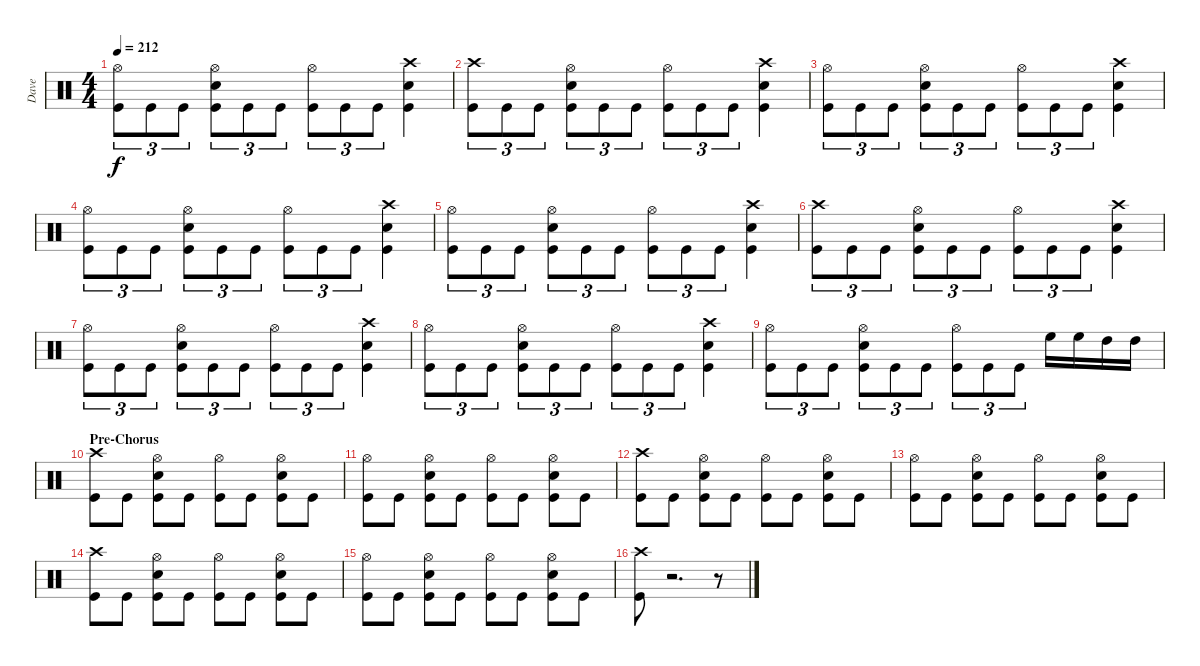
\track ("Dave" "Dave") {instrument percussion}
\staff {score}
\articulation defaults
\ts (4 4)
\tempo 212
\clef neutral
\ks c
("Hi-Hat (open)" "Kick (hit)").8{tu (3 2) dy f} "Kick (hit)".8{tu (3 2)} "Kick (hit)".8{tu (3 2)} ("Hi-Hat (open)" "Snare (hit) 2" "Kick (hit)").8{tu (3 2)} "Kick (hit)".8{tu (3 2)} "Kick (hit)".8{tu (3 2)} ("Hi-Hat (open)" "Kick (hit)").8{tu (3 2)} "Kick (hit)".8{tu (3 2)} "Kick (hit)".8{tu (3 2)} ("Crash high (hit)" "Snare (hit) 2" "Kick (hit)").4 |
("Crash high (hit)" "Kick (hit)").8{tu (3 2)} "Kick (hit)".8{tu (3 2)} "Kick (hit)".8{tu (3 2)} ("Hi-Hat (open)" "Snare (hit) 2" "Kick (hit)").8{tu (3 2)} "Kick (hit)".8{tu (3 2)} "Kick (hit)".8{tu (3 2)} ("Hi-Hat (open)" "Kick (hit)").8{tu (3 2)} "Kick (hit)".8{tu (3 2)} "Kick (hit)".8{tu (3 2)} ("Crash high (hit)" "Snare (hit) 2" "Kick (hit)").4 |
("Hi-Hat (open)" "Kick (hit)").8{tu (3 2)} "Kick (hit)".8{tu (3 2)} "Kick (hit)".8{tu (3 2)} ("Hi-Hat (open)" "Snare (hit) 2" "Kick (hit)").8{tu (3 2)} "Kick (hit)".8{tu (3 2)} "Kick (hit)".8{tu (3 2)} ("Hi-Hat (open)" "Kick (hit)").8{tu (3 2)} "Kick (hit)".8{tu (3 2)} "Kick (hit)".8{tu (3 2)} ("Crash high (hit)" "Snare (hit) 2" "Kick (hit)").4 |
("Hi-Hat (open)" "Kick (hit)").8{tu (3 2)} "Kick (hit)".8{tu (3 2)} "Kick (hit)".8{tu (3 2)} ("Hi-Hat (open)" "Snare (hit) 2" "Kick (hit)").8{tu (3 2)} "Kick (hit)".8{tu (3 2)} "Kick (hit)".8{tu (3 2)} ("Hi-Hat (open)" "Kick (hit)").8{tu (3 2)} "Kick (hit)".8{tu (3 2)} "Kick (hit)".8{tu (3 2)} ("Crash high (hit)" "Snare (hit) 2" "Kick (hit)").4 |
("Hi-Hat (open)" "Kick (hit)").8{tu (3 2)} "Kick (hit)".8{tu (3 2)} "Kick (hit)".8{tu (3 2)} ("Hi-Hat (open)" "Snare (hit) 2" "Kick (hit)").8{tu (3 2)} "Kick (hit)".8{tu (3 2)} "Kick (hit)".8{tu (3 2)} ("Hi-Hat (open)" "Kick (hit)").8{tu (3 2)} "Kick (hit)".8{tu (3 2)} "Kick (hit)".8{tu (3 2)} ("Crash high (hit)" "Snare (hit) 2" "Kick (hit)").4 |
("Crash high (hit)" "Kick (hit)").8{tu (3 2)} "Kick (hit)".8{tu (3 2)} "Kick (hit)".8{tu (3 2)} ("Hi-Hat (open)" "Snare (hit) 2" "Kick (hit)").8{tu (3 2)} "Kick (hit)".8{tu (3 2)} "Kick (hit)".8{tu (3 2)} ("Hi-Hat (open)" "Kick (hit)").8{tu (3 2)} "Kick (hit)".8{tu (3 2)} "Kick (hit)".8{tu (3 2)} ("Crash high (hit)" "Snare (hit) 2" "Kick (hit)").4 |
("Hi-Hat (open)" "Kick (hit)").8{tu (3 2)} "Kick (hit)".8{tu (3 2)} "Kick (hit)".8{tu (3 2)} ("Hi-Hat (open)" "Snare (hit) 2" "Kick (hit)").8{tu (3 2)} "Kick (hit)".8{tu (3 2)} "Kick (hit)".8{tu (3 2)} ("Hi-Hat (open)" "Kick (hit)").8{tu (3 2)} "Kick (hit)".8{tu (3 2)} "Kick (hit)".8{tu (3 2)} ("Crash high (hit)" "Snare (hit) 2" "Kick (hit)").4 |
("Hi-Hat (open)" "Kick (hit)").8{tu (3 2)} "Kick (hit)".8{tu (3 2)} "Kick (hit)".8{tu (3 2)} ("Hi-Hat (open)" "Snare (hit) 2" "Kick (hit)").8{tu (3 2)} "Kick (hit)".8{tu (3 2)} "Kick (hit)".8{tu (3 2)} ("Hi-Hat (open)" "Kick (hit)").8{tu (3 2)} "Kick (hit)".8{tu (3 2)} "Kick (hit)".8{tu (3 2)} ("Crash high (hit)" "Snare (hit) 2" "Kick (hit)").4 |
("Hi-Hat (open)" "Kick (hit)").8{tu (3 2)} "Kick (hit)".8{tu (3 2)} "Kick (hit)".8{tu (3 2)} ("Hi-Hat (open)" "Snare (hit) 2" "Kick (hit)").8{tu (3 2)} "Kick (hit)".8{tu (3 2)} "Kick (hit)".8{tu (3 2)} ("Hi-Hat (open)" "Kick (hit)").8{tu (3 2)} "Kick (hit)".8{tu (3 2)} "Kick (hit)".8{tu (3 2)} "High Floor Tom (hit)".16 "High Floor Tom (hit)".16 "High Tom (hit)".16 "High Tom (hit)".16 |
\section ("" "Pre-Chorus")
("Crash high (hit)" "Kick (hit)").8 "Kick (hit)".8 ("Hi-Hat (open)" "Snare (hit) 2" "Kick (hit)").8 "Kick (hit)".8 ("Hi-Hat (open)" "Kick (hit)").8 "Kick (hit)".8 ("Hi-Hat (open)" "Snare (hit) 2" "Kick (hit)").8 "Kick (hit)".8 |
("Hi-Hat (open)" "Kick (hit)").8 "Kick (hit)".8 ("Hi-Hat (open)" "Snare (hit) 2" "Kick (hit)").8 "Kick (hit)".8 ("Hi-Hat (open)" "Kick (hit)").8 "Kick (hit)".8 ("Hi-Hat (open)" "Snare (hit) 2" "Kick (hit)").8 "Kick (hit)".8 |
("Crash high (hit)" "Kick (hit)").8 "Kick (hit)".8 ("Hi-Hat (open)" "Snare (hit) 2" "Kick (hit)").8 "Kick (hit)".8 ("Hi-Hat (open)" "Kick (hit)").8 "Kick (hit)".8 ("Hi-Hat (open)" "Snare (hit) 2" "Kick (hit)").8 "Kick (hit)".8 |
("Hi-Hat (open)" "Kick (hit)").8 "Kick (hit)".8 ("Hi-Hat (open)" "Snare (hit) 2" "Kick (hit)").8 "Kick (hit)".8 ("Hi-Hat (open)" "Kick (hit)").8 "Kick (hit)".8 ("Hi-Hat (open)" "Snare (hit) 2" "Kick (hit)").8 "Kick (hit)".8 |
("Crash high (hit)" "Kick (hit)").8 "Kick (hit)".8 ("Hi-Hat (open)" "Snare (hit) 2" "Kick (hit)").8 "Kick (hit)".8 ("Hi-Hat (open)" "Kick (hit)").8 "Kick (hit)".8 ("Hi-Hat (open)" "Snare (hit) 2" "Kick (hit)").8 "Kick (hit)".8 |
("Hi-Hat (open)" "Kick (hit)").8 "Kick (hit)".8 ("Hi-Hat (open)" "Snare (hit) 2" "Kick (hit)").8 "Kick (hit)".8 ("Hi-Hat (open)" "Kick (hit)").8 "Kick (hit)".8 ("Hi-Hat (open)" "Snare (hit) 2" "Kick (hit)").8 "Kick (hit)".8 |
("Crash high (hit)" "Kick (hit)").8 r.2{d} r.8
